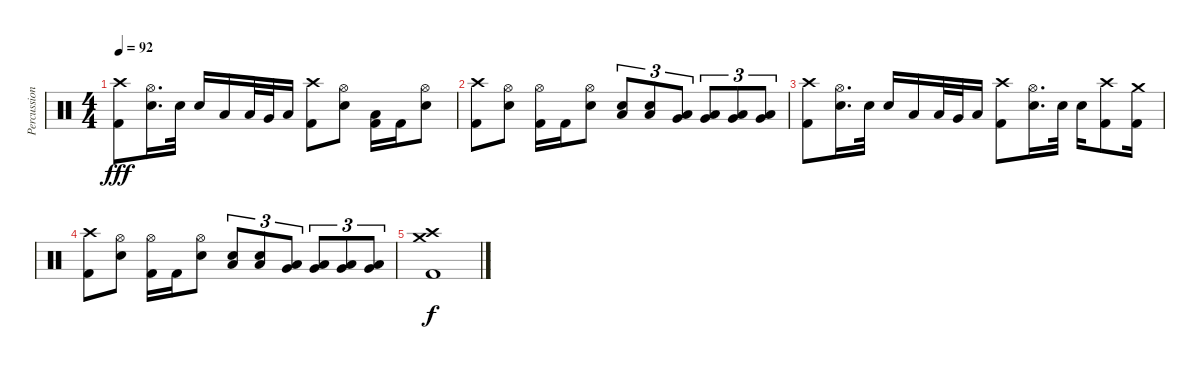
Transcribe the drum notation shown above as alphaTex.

\track ("Percussions" "Percussion") {instrument percussion}
\staff {score}
\articulation defaults
\ts (4 4)
\tempo 92
\clef neutral
\ks c
("Crash high (hit)" "Kick (hit) 2").8{dy fff} ("Hi-Hat (open)" "Electric Snare (hit)").16{d} "Electric Snare (hit)".32 "Electric Snare (hit)".16 "Low Tom (hit)".16 "Low Tom (hit)".32 "Very Low Tom (hit)".32 "Low Floor Tom (hit)".16 ("Crash high (hit)" "Kick (hit) 2").8 ("Hi-Hat (open)" "Electric Snare (hit)").8 ("Low Floor Tom (hit)" "Kick (hit) 2").16 "Kick (hit) 2".16 ("Hi-Hat (open)" "Electric Snare (hit)").8 |
("Crash high (hit)" "Kick (hit) 2").8 ("Hi-Hat (open)" "Electric Snare (hit)").8 ("Hi-Hat (open)" "Kick (hit) 2").16 "Kick (hit) 2".16 ("Hi-Hat (open)" "Electric Snare (hit)").8 ("Low Tom (hit)" "Electric Snare (hit)").8{tu (3 2)} ("Low Tom (hit)" "Electric Snare (hit)").8{tu (3 2)} ("Low Tom (hit)" "Very Low Tom (hit)").8{tu (3 2)} ("Low Tom (hit)" "Very Low Tom (hit)").8{tu (3 2)} ("Low Floor Tom (hit)" "Very Low Tom (hit)").8{tu (3 2)} ("Low Floor Tom (hit)" "Very Low Tom (hit)").8{tu (3 2)} |
("Crash high (hit)" "Kick (hit) 2").8 ("Hi-Hat (open)" "Electric Snare (hit)").16{d} "Electric Snare (hit)".32 "Electric Snare (hit)".16 "Low Tom (hit)".16 "Low Tom (hit)".32 "Very Low Tom (hit)".32 "Low Floor Tom (hit)".16 ("Crash high (hit)" "Kick (hit) 2").8 ("Hi-Hat (open)" "Electric Snare (hit)").16{d} "Electric Snare (hit)".32 "Electric Snare (hit)".16 ("Crash high (hit)" "Kick (hit) 2").8 ("Crash medium (hit)" "Kick (hit) 2").16 |
("Crash high (hit)" "Kick (hit) 2").8 ("Hi-Hat (open)" "Electric Snare (hit)").8 ("Hi-Hat (open)" "Kick (hit) 2").16 "Kick (hit) 2".16 ("Hi-Hat (open)" "Electric Snare (hit)").8 ("Low Tom (hit)" "Electric Snare (hit)").8{tu (3 2)} ("Low Tom (hit)" "Electric Snare (hit)").8{tu (3 2)} ("Low Tom (hit)" "Very Low Tom (hit)").8{tu (3 2)} ("Low Tom (hit)" "Very Low Tom (hit)").8{tu (3 2)} ("Low Floor Tom (hit)" "Very Low Tom (hit)").8{tu (3 2)} ("Low Floor Tom (hit)" "Very Low Tom (hit)").8{tu (3 2)} |
("Crash medium (hit)" "Crash high (hit)" "Kick (hit) 2").1{dy f}
